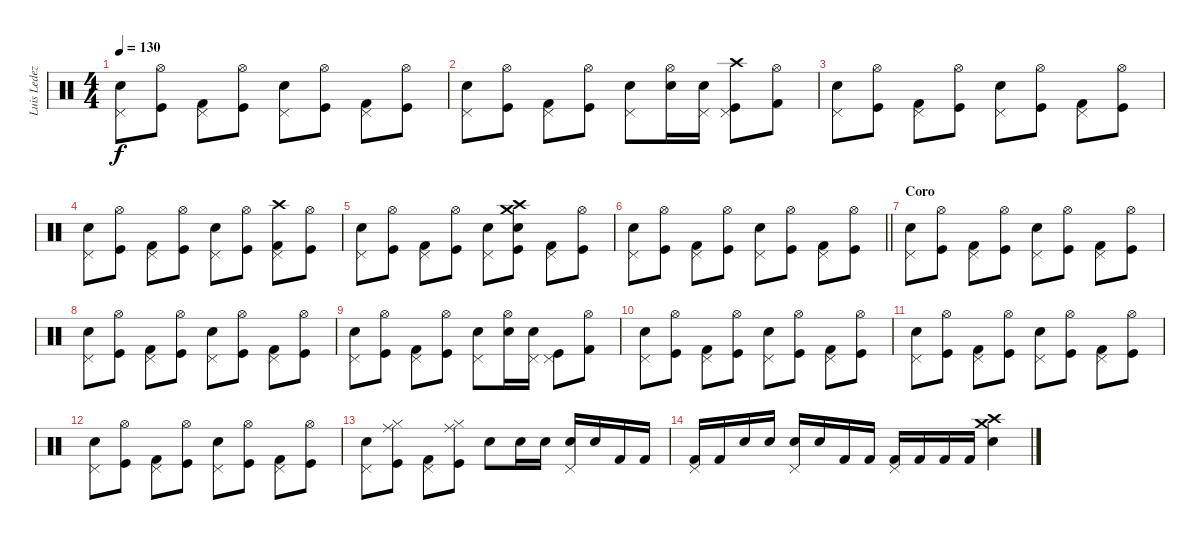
\track ("Luis Ledezma (bateria)" "Luis Ledez") {instrument percussion}
\staff {score}
\articulation defaults
\ts (4 4)
\tempo 130
\clef neutral
\ks c
("Pedal Hi-Hat (hit)" "Snare (hit) 2").8{dy f} ("Hi-Hat (open)" "Kick (hit)").8 ("Pedal Hi-Hat (hit)" "Kick (hit) 2").8 ("Hi-Hat (open)" "Kick (hit)").8 ("Pedal Hi-Hat (hit)" "Snare (hit) 2").8 ("Hi-Hat (open)" "Kick (hit)").8 ("Pedal Hi-Hat (hit)" "Kick (hit) 2").8 ("Hi-Hat (open)" "Kick (hit)").8 |
("Pedal Hi-Hat (hit)" "Snare (hit) 2").8 ("Hi-Hat (open)" "Kick (hit)").8 ("Pedal Hi-Hat (hit)" "Kick (hit) 2").8 ("Hi-Hat (open)" "Kick (hit)").8 ("Pedal Hi-Hat (hit)" "Snare (hit) 2").8 ("Hi-Hat (open)" "Snare (hit) 2").16 ("Pedal Hi-Hat (hit)" "Snare (hit) 2").16 ("Crash high (hit)" "Pedal Hi-Hat (hit)" "Kick (hit)").8 ("Hi-Hat (open)" "Kick (hit) 2").8 |
("Pedal Hi-Hat (hit)" "Snare (hit) 2").8 ("Hi-Hat (open)" "Kick (hit)").8 ("Pedal Hi-Hat (hit)" "Kick (hit) 2").8 ("Hi-Hat (open)" "Kick (hit)").8 ("Pedal Hi-Hat (hit)" "Snare (hit) 2").8 ("Hi-Hat (open)" "Kick (hit)").8 ("Pedal Hi-Hat (hit)" "Kick (hit) 2").8 ("Hi-Hat (open)" "Kick (hit)").8 |
("Pedal Hi-Hat (hit)" "Snare (hit) 2").8 ("Hi-Hat (open)" "Kick (hit)").8 ("Pedal Hi-Hat (hit)" "Kick (hit) 2").8 ("Hi-Hat (open)" "Kick (hit)").8 ("Pedal Hi-Hat (hit)" "Snare (hit) 2").8 ("Hi-Hat (open)" "Kick (hit)").8 ("Crash high (hit)" "Pedal Hi-Hat (hit)" "Kick (hit) 2").8 ("Hi-Hat (open)" "Kick (hit)").8 |
("Pedal Hi-Hat (hit)" "Snare (hit) 2").8 ("Hi-Hat (open)" "Kick (hit)").8 ("Pedal Hi-Hat (hit)" "Kick (hit) 2").8 ("Hi-Hat (open)" "Kick (hit)").8 ("Pedal Hi-Hat (hit)" "Snare (hit) 2").8 ("Crash medium (hit)" "Crash high (hit)" "Snare (hit) 2" "Kick (hit)").8 ("Pedal Hi-Hat (hit)" "Kick (hit) 2").8 ("Hi-Hat (open)" "Kick (hit)").8 |
\barLineRight lightlight
("Pedal Hi-Hat (hit)" "Snare (hit) 2").8 ("Hi-Hat (open)" "Kick (hit)").8 ("Pedal Hi-Hat (hit)" "Kick (hit) 2").8 ("Hi-Hat (open)" "Kick (hit)").8 ("Pedal Hi-Hat (hit)" "Snare (hit) 2").8 ("Hi-Hat (open)" "Kick (hit)").8 ("Pedal Hi-Hat (hit)" "Kick (hit) 2").8 ("Hi-Hat (open)" "Kick (hit)").8 |
\section ("" "Coro")
("Pedal Hi-Hat (hit)" "Snare (hit) 2").8 ("Hi-Hat (open)" "Kick (hit)").8 ("Pedal Hi-Hat (hit)" "Kick (hit) 2").8 ("Hi-Hat (open)" "Kick (hit)").8 ("Pedal Hi-Hat (hit)" "Snare (hit) 2").8 ("Hi-Hat (open)" "Kick (hit)").8 ("Pedal Hi-Hat (hit)" "Kick (hit) 2").8 ("Hi-Hat (open)" "Kick (hit)").8 |
("Pedal Hi-Hat (hit)" "Snare (hit) 2").8 ("Hi-Hat (open)" "Kick (hit)").8 ("Pedal Hi-Hat (hit)" "Kick (hit) 2").8 ("Hi-Hat (open)" "Kick (hit)").8 ("Pedal Hi-Hat (hit)" "Snare (hit) 2").8 ("Hi-Hat (open)" "Kick (hit)").8 ("Pedal Hi-Hat (hit)" "Kick (hit) 2").8 ("Hi-Hat (open)" "Kick (hit)").8 |
("Pedal Hi-Hat (hit)" "Snare (hit) 2").8 ("Hi-Hat (open)" "Kick (hit)").8 ("Pedal Hi-Hat (hit)" "Kick (hit) 2").8 ("Hi-Hat (open)" "Kick (hit)").8 ("Pedal Hi-Hat (hit)" "Snare (hit) 2").8 ("Hi-Hat (open)" "Snare (hit) 2").16 ("Pedal Hi-Hat (hit)" "Snare (hit) 2").16 ("Pedal Hi-Hat (hit)" "Kick (hit)").8 ("Hi-Hat (open)" "Kick (hit) 2").8 |
("Pedal Hi-Hat (hit)" "Snare (hit) 2").8 ("Hi-Hat (open)" "Kick (hit)").8 ("Pedal Hi-Hat (hit)" "Kick (hit) 2").8 ("Hi-Hat (open)" "Kick (hit)").8 ("Pedal Hi-Hat (hit)" "Snare (hit) 2").8 ("Hi-Hat (open)" "Kick (hit)").8 ("Pedal Hi-Hat (hit)" "Kick (hit) 2").8 ("Hi-Hat (open)" "Kick (hit)").8 |
("Pedal Hi-Hat (hit)" "Snare (hit) 2").8 ("Hi-Hat (open)" "Kick (hit)").8 ("Pedal Hi-Hat (hit)" "Kick (hit) 2").8 ("Hi-Hat (open)" "Kick (hit)").8 ("Pedal Hi-Hat (hit)" "Snare (hit) 2").8 ("Hi-Hat (open)" "Kick (hit)").8 ("Pedal Hi-Hat (hit)" "Kick (hit) 2").8 ("Hi-Hat (open)" "Kick (hit)").8 |
("Pedal Hi-Hat (hit)" "Snare (hit) 2").8 ("Hi-Hat (open)" "Kick (hit)").8 ("Pedal Hi-Hat (hit)" "Kick (hit) 2").8 ("Hi-Hat (open)" "Kick (hit)").8 ("Pedal Hi-Hat (hit)" "Snare (hit) 2").8 ("Hi-Hat (open)" "Kick (hit)").8 ("Pedal Hi-Hat (hit)" "Kick (hit) 2").8 ("Hi-Hat (open)" "Kick (hit)").8 |
("Pedal Hi-Hat (hit)" "Snare (hit) 2").8 ("Ride (middle)" "Hi-Hat (closed)" "Kick (hit)").8 ("Pedal Hi-Hat (hit)" "Kick (hit) 2").8 ("Ride (middle)" "Hi-Hat (closed)" "Kick (hit)").8 "Snare (hit) 2".8 "Snare (hit) 2".16 "Snare (hit) 2".16 ("Pedal Hi-Hat (hit)" "Snare (hit) 2").16 "Snare (hit) 2".16 "Kick (hit) 2".16 "Kick (hit) 2".16 |
("Pedal Hi-Hat (hit)" "Kick (hit) 2").16 "Kick (hit) 2".16 "Snare (hit) 2".16 "Snare (hit) 2".16 ("Pedal Hi-Hat (hit)" "Snare (hit) 2").16 "Snare (hit) 2".16 "Kick (hit) 2".16 "Kick (hit) 2".16 ("Pedal Hi-Hat (hit)" "Kick (hit) 2").16 "Kick (hit) 2".16 "Kick (hit) 2".16 "Kick (hit) 2".16 ("Crash high (hit)" "Crash medium (hit)" "Snare (hit) 2").4
